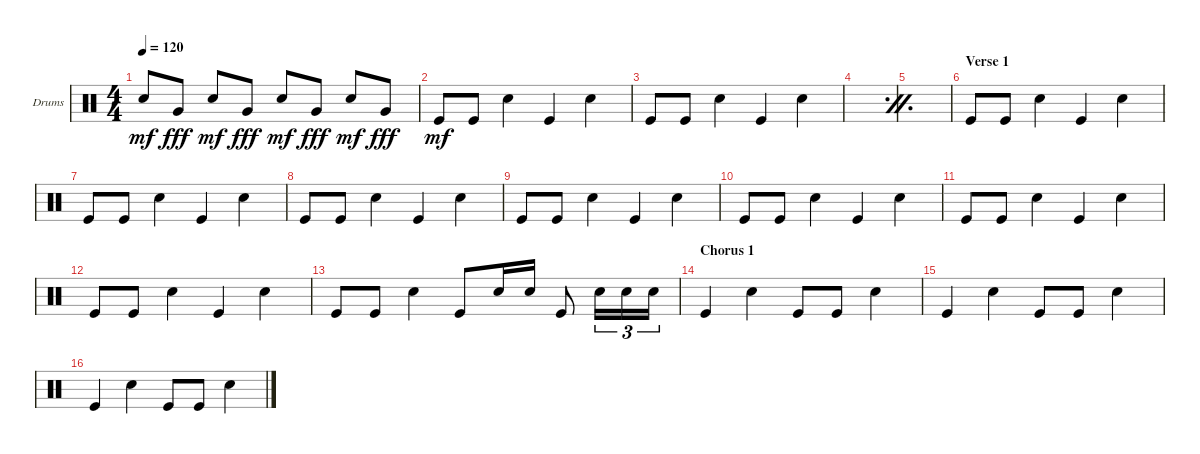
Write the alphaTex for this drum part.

\bracketExtendMode groupsimilarinstruments
\firstSystemTrackNameOrientation horizontal
\otherSystemsTrackNameOrientation horizontal
\track ("Drumkit" "Drums") {instrument percussion}
\staff {score}
\articulation defaults
\ts (4 4)
\tempo 120
\clef neutral
\ks c "Snare (hit) 2".8{dy mf} "Very Low Tom (hit)".8{dy fff} "Snare (hit) 2".8{dy mf} "Very Low Tom (hit)".8{dy fff} "Snare (hit) 2".8{dy mf} "Very Low Tom (hit)".8{dy fff} "Snare (hit) 2".8{dy mf} "Very Low Tom (hit)".8{dy fff}
|
"Kick (hit)".8{dy mf} "Kick (hit)".8 "Snare (hit) 2".4 "Kick (hit)".4 "Snare (hit) 2".4 |
"Kick (hit)".8 "Kick (hit)".8 "Snare (hit) 2".4 "Kick (hit)".4 "Snare (hit) 2".4 |
\simile firstofdouble
|
\simile secondofdouble
|
\section ("" "Verse 1")
\simile none "Kick (hit)".8 "Kick (hit)".8 "Snare (hit) 2".4 "Kick (hit)".4 "Snare (hit) 2".4
|
"Kick (hit)".8 "Kick (hit)".8 "Snare (hit) 2".4 "Kick (hit)".4 "Snare (hit) 2".4 |
"Kick (hit)".8 "Kick (hit)".8 "Snare (hit) 2".4 "Kick (hit)".4 "Snare (hit) 2".4 |
"Kick (hit)".8 "Kick (hit)".8 "Snare (hit) 2".4 "Kick (hit)".4 "Snare (hit) 2".4 |
"Kick (hit)".8 "Kick (hit)".8 "Snare (hit) 2".4 "Kick (hit)".4 "Snare (hit) 2".4 |
"Kick (hit)".8 "Kick (hit)".8 "Snare (hit) 2".4 "Kick (hit)".4 "Snare (hit) 2".4 |
"Kick (hit)".8 "Kick (hit)".8 "Snare (hit) 2".4 "Kick (hit)".4 "Snare (hit) 2".4 |
"Kick (hit)".8 "Kick (hit)".8 "Snare (hit) 2".4 "Kick (hit)".8 "Snare (hit) 2".16 "Snare (hit) 2".16 "Kick (hit)".8 "Snare (hit) 2".16{tu (3 2)} "Snare (hit) 2".16{tu (3 2)} "Snare (hit) 2".16{tu (3 2)} |
\section ("" "Chorus 1")
"Kick (hit)".4 "Snare (hit) 2".4 "Kick (hit)".8 "Kick (hit)".8 "Snare (hit) 2".4 |
"Kick (hit)".4 "Snare (hit) 2".4 "Kick (hit)".8 "Kick (hit)".8 "Snare (hit) 2".4 |
"Kick (hit)".4 "Snare (hit) 2".4 "Kick (hit)".8 "Kick (hit)".8 "Snare (hit) 2".4
